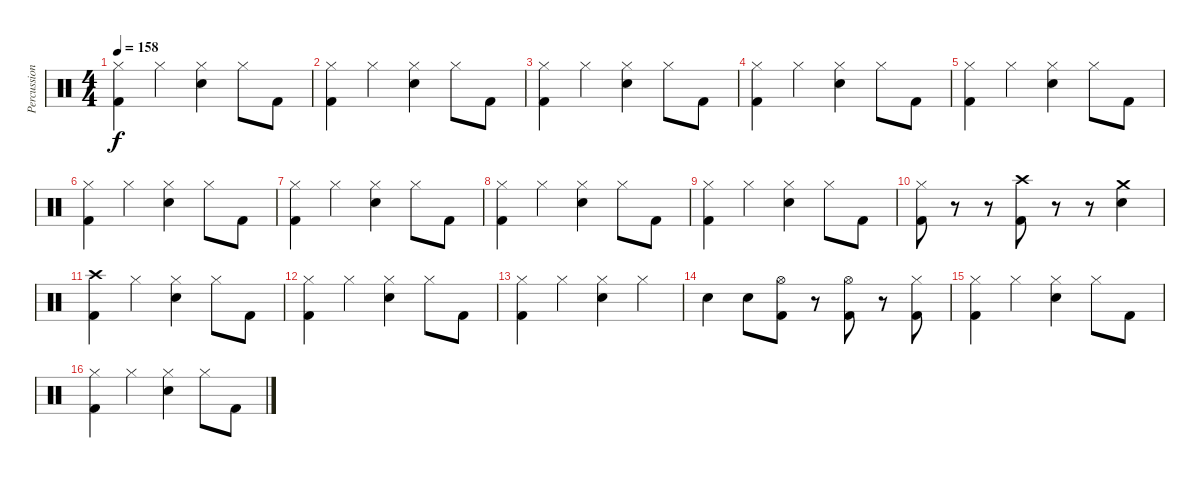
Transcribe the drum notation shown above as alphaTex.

\track ("Percussions" "Percussion") {instrument percussion}
\staff {score}
\articulation defaults
\ts (4 4)
\tempo 158
\clef neutral
\ks c
("Hi-Hat (closed)" "Kick (hit) 2").4{dy f} "Hi-Hat (closed)".4 ("Hi-Hat (closed)" "Snare (hit) 2").4 "Hi-Hat (closed)".8 "Kick (hit) 2".8 |
("Hi-Hat (closed)" "Kick (hit) 2").4 "Hi-Hat (closed)".4 ("Hi-Hat (closed)" "Snare (hit) 2").4 "Hi-Hat (closed)".8 "Kick (hit) 2".8 |
("Hi-Hat (closed)" "Kick (hit) 2").4 "Hi-Hat (closed)".4 ("Hi-Hat (closed)" "Snare (hit) 2").4 "Hi-Hat (closed)".8 "Kick (hit) 2".8 |
("Hi-Hat (closed)" "Kick (hit) 2").4 "Hi-Hat (closed)".4 ("Hi-Hat (closed)" "Snare (hit) 2").4 "Hi-Hat (closed)".8 "Kick (hit) 2".8 |
("Hi-Hat (closed)" "Kick (hit) 2").4 "Hi-Hat (closed)".4 ("Hi-Hat (closed)" "Snare (hit) 2").4 "Hi-Hat (closed)".8 "Kick (hit) 2".8 |
("Hi-Hat (closed)" "Kick (hit) 2").4 "Hi-Hat (closed)".4 ("Hi-Hat (closed)" "Snare (hit) 2").4 "Hi-Hat (closed)".8 "Kick (hit) 2".8 |
("Hi-Hat (closed)" "Kick (hit) 2").4 "Hi-Hat (closed)".4 ("Hi-Hat (closed)" "Snare (hit) 2").4 "Hi-Hat (closed)".8 "Kick (hit) 2".8 |
("Hi-Hat (closed)" "Kick (hit) 2").4 "Hi-Hat (closed)".4 ("Hi-Hat (closed)" "Snare (hit) 2").4 "Hi-Hat (closed)".8 "Kick (hit) 2".8 |
("Hi-Hat (closed)" "Kick (hit) 2").4 "Hi-Hat (closed)".4 ("Hi-Hat (closed)" "Snare (hit) 2").4 "Hi-Hat (closed)".8 "Kick (hit) 2".8 |
("Hi-Hat (closed)" "Kick (hit) 2").8 r.8 r.8 ("Crash high (hit)" "Kick (hit) 2").8 r.8 r.8 ("Crash medium (hit)" "Snare (hit) 2").4 |
("Crash high (hit)" "Kick (hit) 2").4 "Hi-Hat (closed)".4 ("Hi-Hat (closed)" "Snare (hit) 2").4 "Hi-Hat (closed)".8 "Kick (hit) 2".8 |
("Hi-Hat (closed)" "Kick (hit) 2").4 "Hi-Hat (closed)".4 ("Hi-Hat (closed)" "Snare (hit) 2").4 "Hi-Hat (closed)".8 "Kick (hit) 2".8 |
("Hi-Hat (closed)" "Kick (hit) 2").4 "Hi-Hat (closed)".4 ("Hi-Hat (closed)" "Snare (hit) 2").4 "Hi-Hat (closed)".4 |
"Snare (hit) 2".4 "Snare (hit) 2".8 ("Hi-Hat (open)" "Kick (hit) 2").8 r.8 ("Hi-Hat (open)" "Kick (hit) 2").8 r.8 ("Hi-Hat (closed)" "Kick (hit) 2").8 |
("Hi-Hat (closed)" "Kick (hit) 2").4 "Hi-Hat (closed)".4 ("Hi-Hat (closed)" "Snare (hit) 2").4 "Hi-Hat (closed)".8 "Kick (hit) 2".8 |
("Hi-Hat (closed)" "Kick (hit) 2").4 "Hi-Hat (closed)".4 ("Hi-Hat (closed)" "Snare (hit) 2").4 "Hi-Hat (closed)".8 "Kick (hit) 2".8
